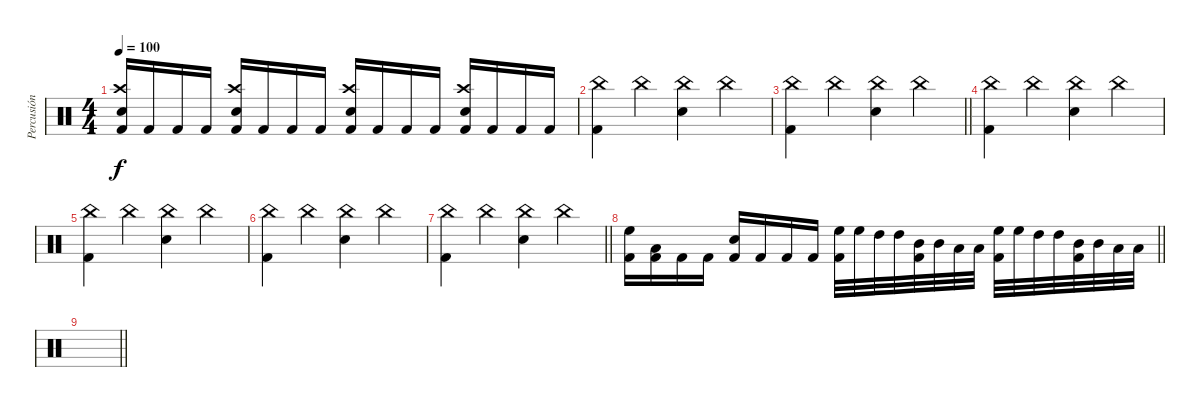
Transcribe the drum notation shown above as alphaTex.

\track ("Percusión" "Percusión") {instrument percussion bank 1}
\staff {score}
\articulation defaults
\ts (4 4)
\tempo 100
\clef neutral
\ks c
("Kick (hit) 2" "Crash high (hit)" "Snare (hit) 2").16{dy f} "Kick (hit) 2".16 "Kick (hit) 2".16 "Kick (hit) 2".16 ("Kick (hit) 2" "Crash high (hit)" "Snare (hit) 2").16 "Kick (hit) 2".16 "Kick (hit) 2".16 "Kick (hit) 2".16 ("Kick (hit) 2" "Crash high (hit)" "Snare (hit) 2").16 "Kick (hit) 2".16 "Kick (hit) 2".16 "Kick (hit) 2".16 ("Crash high (hit)" "Kick (hit) 2" "Snare (hit) 2").16 "Kick (hit) 2".16 "Kick (hit) 2".16 "Kick (hit) 2".16 |
("China (hit)" "Kick (hit) 2").4 "China (hit)".4 ("China (hit)" "Snare (hit) 2").4 "China (hit)".4 |
\barLineRight lightlight
("China (hit)" "Kick (hit) 2").4 "China (hit)".4 ("China (hit)" "Snare (hit) 2").4 "China (hit)".4 |
("China (hit)" "Kick (hit) 2").4 "China (hit)".4 ("China (hit)" "Snare (hit) 2").4 "China (hit)".4 |
("China (hit)" "Kick (hit) 2").4 "China (hit)".4 ("China (hit)" "Snare (hit) 2").4 "China (hit)".4 |
("China (hit)" "Kick (hit) 2").4 "China (hit)".4 ("China (hit)" "Snare (hit) 2").4 "China (hit)".4 |
\barLineRight lightlight
("China (hit)" "Kick (hit) 2").4 "China (hit)".4 ("China (hit)" "Snare (hit) 2").4 "China (hit)".4 |
\barLineRight lightlight
("High Floor Tom (hit)" "Kick (hit) 2").16 ("Kick (hit) 2" "Low Tom (hit)").16 "Kick (hit) 2".16 "Kick (hit) 2".16 ("Snare (hit) 2" "Kick (hit) 2").16 "Kick (hit) 2".16 "Kick (hit) 2".16 "Kick (hit) 2".16 ("High Floor Tom (hit)" "Kick (hit) 2").32 "High Floor Tom (hit)".32 "High Tom (hit)".32 "High Tom (hit)".32 ("Mid Tom (hit)" "Kick (hit) 2").32 "Mid Tom (hit)".32 "Low Tom (hit)".32 "Low Tom (hit)".32 ("High Floor Tom (hit)" "Kick (hit) 2").32 "High Floor Tom (hit)".32 "High Tom (hit)".32 "High Tom (hit)".32 ("Mid Tom (hit)" "Kick (hit) 2").32 "Mid Tom (hit)".32 "Low Tom (hit)".32 "Low Tom (hit)".32 |
\barLineRight lightlight
